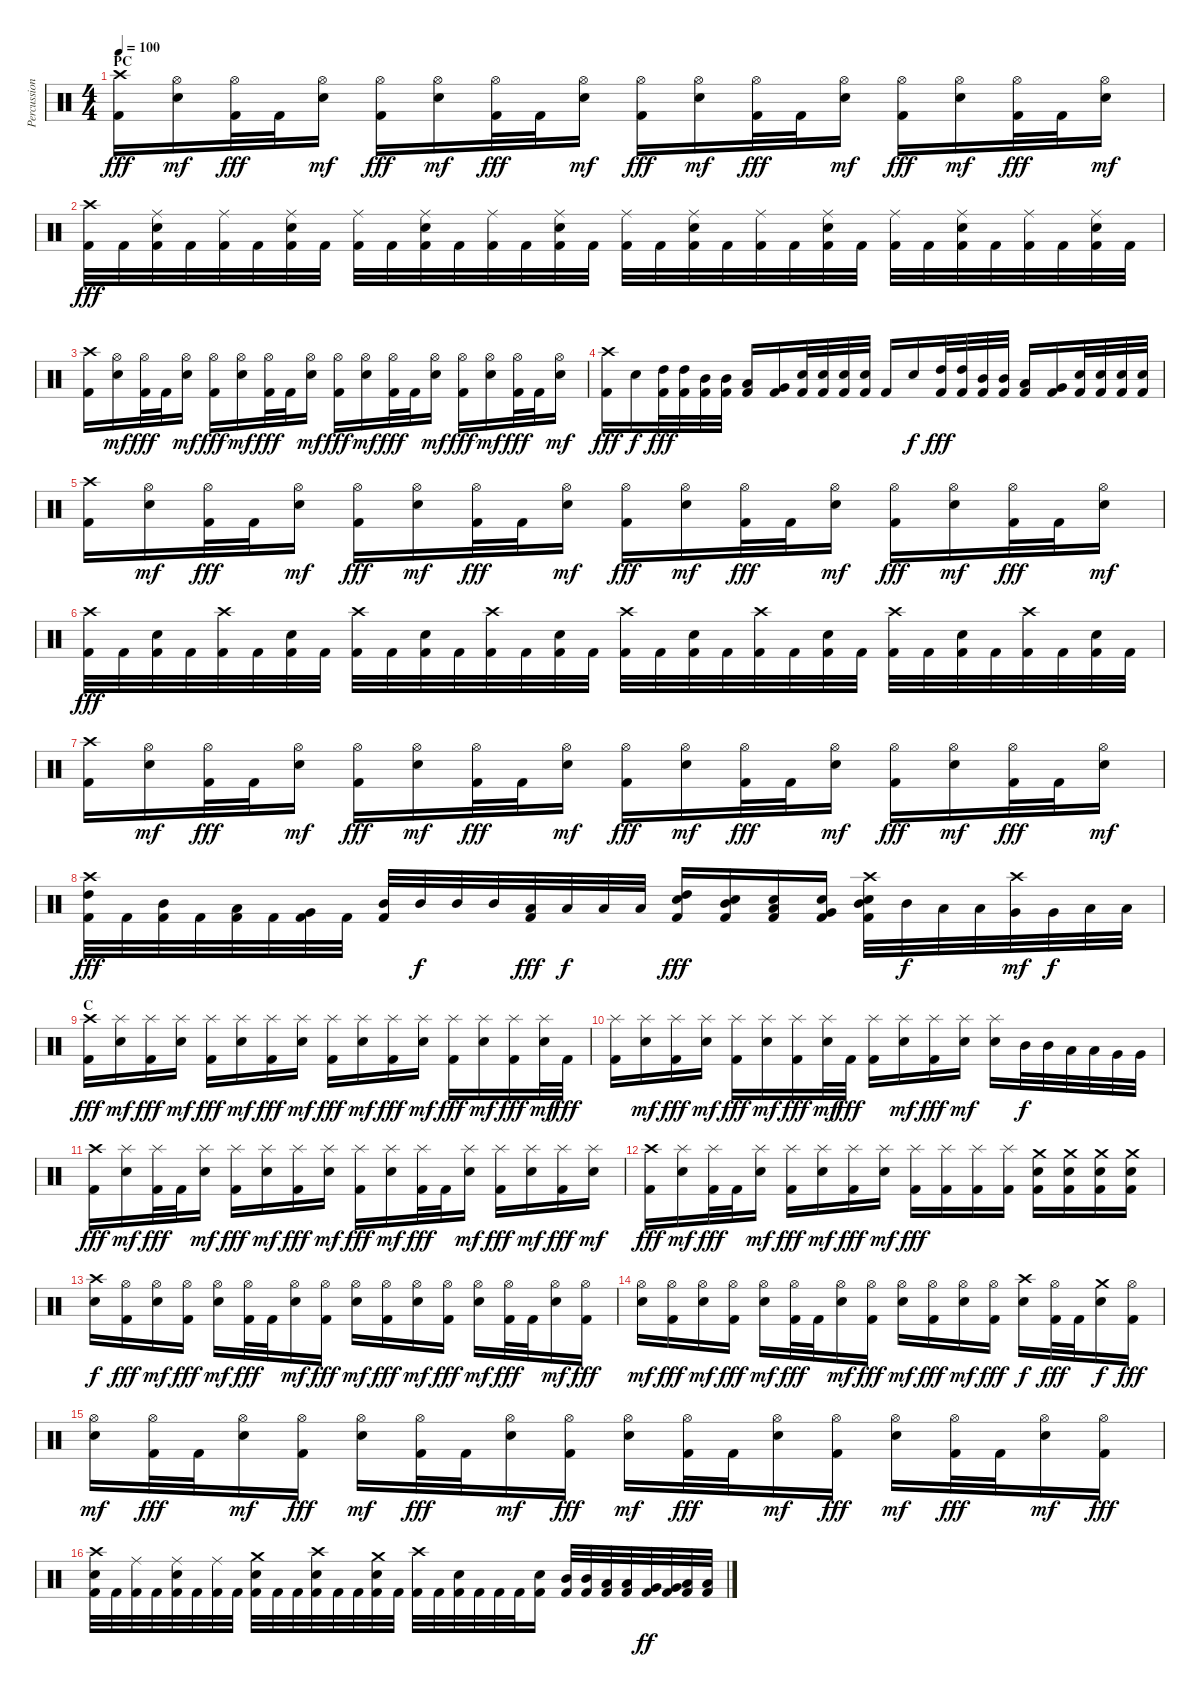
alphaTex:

\track ("Percussion" "Percussion") {instrument percussion}
\staff {score}
\articulation defaults
\ts (4 4)
\section ("" "PC")
\tempo 100
\clef neutral
\ks c
("Crash high (hit)" "Kick (hit) 2").16{dy fff} ("Hi-Hat (open)" "Snare (hit) 2").16{dy mf} ("Hi-Hat (open)" "Kick (hit) 2").32{dy fff} "Kick (hit) 2".32 ("Hi-Hat (open)" "Snare (hit) 2").16{dy mf} ("Hi-Hat (open)" "Kick (hit) 2").16{dy fff} ("Hi-Hat (open)" "Snare (hit) 2").16{dy mf} ("Hi-Hat (open)" "Kick (hit) 2").32{dy fff} "Kick (hit) 2".32 ("Hi-Hat (open)" "Snare (hit) 2").16{dy mf} ("Hi-Hat (open)" "Kick (hit) 2").16{dy fff} ("Hi-Hat (open)" "Snare (hit) 2").16{dy mf} ("Hi-Hat (open)" "Kick (hit) 2").32{dy fff} "Kick (hit) 2".32 ("Hi-Hat (open)" "Snare (hit) 2").16{dy mf} ("Hi-Hat (open)" "Kick (hit) 2").16{dy fff} ("Hi-Hat (open)" "Snare (hit) 2").16{dy mf} ("Hi-Hat (open)" "Kick (hit) 2").32{dy fff} "Kick (hit) 2".32 ("Hi-Hat (open)" "Snare (hit) 2").16{dy mf} |
("Crash high (hit)" "Kick (hit) 2").32{dy fff} "Kick (hit) 2".32 ("Ride (middle)" "Snare (hit) 2" "Kick (hit) 2").32 "Kick (hit) 2".32 ("Ride (middle)" "Kick (hit) 2").32 "Kick (hit) 2".32 ("Ride (middle)" "Snare (hit) 2" "Kick (hit) 2").32 "Kick (hit) 2".32 ("Ride (middle)" "Kick (hit) 2").32 "Kick (hit) 2".32 ("Ride (middle)" "Snare (hit) 2" "Kick (hit) 2").32 "Kick (hit) 2".32 ("Ride (middle)" "Kick (hit) 2").32 "Kick (hit) 2".32 ("Ride (middle)" "Snare (hit) 2" "Kick (hit) 2").32 "Kick (hit) 2".32 ("Ride (middle)" "Kick (hit) 2").32 "Kick (hit) 2".32 ("Ride (middle)" "Snare (hit) 2" "Kick (hit) 2").32 "Kick (hit) 2".32 ("Ride (middle)" "Kick (hit) 2").32 "Kick (hit) 2".32 ("Ride (middle)" "Snare (hit) 2" "Kick (hit) 2").32 "Kick (hit) 2".32 ("Ride (middle)" "Kick (hit) 2").32 "Kick (hit) 2".32 ("Ride (middle)" "Snare (hit) 2" "Kick (hit) 2").32 "Kick (hit) 2".32 ("Ride (middle)" "Kick (hit) 2").32 "Kick (hit) 2".32 ("Ride (middle)" "Snare (hit) 2" "Kick (hit) 2").32 "Kick (hit) 2".32 |
("Crash high (hit)" "Kick (hit) 2").16 ("Hi-Hat (open)" "Snare (hit) 2").16{dy mf} ("Hi-Hat (open)" "Kick (hit) 2").32{dy fff} "Kick (hit) 2".32 ("Hi-Hat (open)" "Snare (hit) 2").16{dy mf} ("Hi-Hat (open)" "Kick (hit) 2").16{dy fff} ("Hi-Hat (open)" "Snare (hit) 2").16{dy mf} ("Hi-Hat (open)" "Kick (hit) 2").32{dy fff} "Kick (hit) 2".32 ("Hi-Hat (open)" "Snare (hit) 2").16{dy mf} ("Hi-Hat (open)" "Kick (hit) 2").16{dy fff} ("Hi-Hat (open)" "Snare (hit) 2").16{dy mf} ("Hi-Hat (open)" "Kick (hit) 2").32{dy fff} "Kick (hit) 2".32 ("Hi-Hat (open)" "Snare (hit) 2").16{dy mf} ("Hi-Hat (open)" "Kick (hit) 2").16{dy fff} ("Hi-Hat (open)" "Snare (hit) 2").16{dy mf} ("Hi-Hat (open)" "Kick (hit) 2").32{dy fff} "Kick (hit) 2".32 ("Hi-Hat (open)" "Snare (hit) 2").16{dy mf} |
("Crash high (hit)" "Kick (hit) 2").16{dy fff} "Snare (hit) 2".16{dy f} ("High Tom (hit)" "Kick (hit) 2").32{dy fff} ("High Tom (hit)" "Kick (hit) 2").32 ("Mid Tom (hit)" "Kick (hit) 2").32 ("Mid Tom (hit)" "Kick (hit) 2").32 ("Low Tom (hit)" "Kick (hit) 2").16 ("Very Low Tom (hit)" "Kick (hit) 2").16 ("Snare (hit) 2" "Kick (hit) 2").32 ("Snare (hit) 2" "Kick (hit) 2").32 ("Snare (hit) 2" "Kick (hit) 2").32 ("Snare (hit) 2" "Kick (hit) 2").32 "Kick (hit) 2".16 "Snare (hit) 2".16{dy f} ("High Tom (hit)" "Kick (hit) 2").32{dy fff} ("High Tom (hit)" "Kick (hit) 2").32 ("Mid Tom (hit)" "Kick (hit) 2").32 ("Mid Tom (hit)" "Kick (hit) 2").32 ("Low Tom (hit)" "Kick (hit) 2").16 ("Very Low Tom (hit)" "Kick (hit) 2").16 ("Snare (hit) 2" "Kick (hit) 2").32 ("Snare (hit) 2" "Kick (hit) 2").32 ("Snare (hit) 2" "Kick (hit) 2").32 ("Snare (hit) 2" "Kick (hit) 2").32 |
("Crash high (hit)" "Kick (hit) 2").16 ("Hi-Hat (open)" "Snare (hit) 2").16{dy mf} ("Hi-Hat (open)" "Kick (hit) 2").32{dy fff} "Kick (hit) 2".32 ("Hi-Hat (open)" "Snare (hit) 2").16{dy mf} ("Hi-Hat (open)" "Kick (hit) 2").16{dy fff} ("Hi-Hat (open)" "Snare (hit) 2").16{dy mf} ("Hi-Hat (open)" "Kick (hit) 2").32{dy fff} "Kick (hit) 2".32 ("Hi-Hat (open)" "Snare (hit) 2").16{dy mf} ("Hi-Hat (open)" "Kick (hit) 2").16{dy fff} ("Hi-Hat (open)" "Snare (hit) 2").16{dy mf} ("Hi-Hat (open)" "Kick (hit) 2").32{dy fff} "Kick (hit) 2".32 ("Hi-Hat (open)" "Snare (hit) 2").16{dy mf} ("Hi-Hat (open)" "Kick (hit) 2").16{dy fff} ("Hi-Hat (open)" "Snare (hit) 2").16{dy mf} ("Hi-Hat (open)" "Kick (hit) 2").32{dy fff} "Kick (hit) 2".32 ("Hi-Hat (open)" "Snare (hit) 2").16{dy mf} |
("Crash high (hit)" "Kick (hit) 2").32{dy fff} "Kick (hit) 2".32 ("Snare (hit) 2" "Kick (hit) 2").32 "Kick (hit) 2".32 ("Crash high (hit)" "Kick (hit) 2").32 "Kick (hit) 2".32 ("Snare (hit) 2" "Kick (hit) 2").32 "Kick (hit) 2".32 ("Crash high (hit)" "Kick (hit) 2").32 "Kick (hit) 2".32 ("Snare (hit) 2" "Kick (hit) 2").32 "Kick (hit) 2".32 ("Crash high (hit)" "Kick (hit) 2").32 "Kick (hit) 2".32 ("Snare (hit) 2" "Kick (hit) 2").32 "Kick (hit) 2".32 ("Crash high (hit)" "Kick (hit) 2").32 "Kick (hit) 2".32 ("Snare (hit) 2" "Kick (hit) 2").32 "Kick (hit) 2".32 ("Crash high (hit)" "Kick (hit) 2").32 "Kick (hit) 2".32 ("Snare (hit) 2" "Kick (hit) 2").32 "Kick (hit) 2".32 ("Crash high (hit)" "Kick (hit) 2").32 "Kick (hit) 2".32 ("Snare (hit) 2" "Kick (hit) 2").32 "Kick (hit) 2".32 ("Crash high (hit)" "Kick (hit) 2").32 "Kick (hit) 2".32 ("Snare (hit) 2" "Kick (hit) 2").32 "Kick (hit) 2".32 |
("Crash high (hit)" "Kick (hit) 2").16 ("Hi-Hat (open)" "Snare (hit) 2").16{dy mf} ("Hi-Hat (open)" "Kick (hit) 2").32{dy fff} "Kick (hit) 2".32 ("Hi-Hat (open)" "Snare (hit) 2").16{dy mf} ("Hi-Hat (open)" "Kick (hit) 2").16{dy fff} ("Hi-Hat (open)" "Snare (hit) 2").16{dy mf} ("Hi-Hat (open)" "Kick (hit) 2").32{dy fff} "Kick (hit) 2".32 ("Hi-Hat (open)" "Snare (hit) 2").16{dy mf} ("Hi-Hat (open)" "Kick (hit) 2").16{dy fff} ("Hi-Hat (open)" "Snare (hit) 2").16{dy mf} ("Hi-Hat (open)" "Kick (hit) 2").32{dy fff} "Kick (hit) 2".32 ("Hi-Hat (open)" "Snare (hit) 2").16{dy mf} ("Hi-Hat (open)" "Kick (hit) 2").16{dy fff} ("Hi-Hat (open)" "Snare (hit) 2").16{dy mf} ("Hi-Hat (open)" "Kick (hit) 2").32{dy fff} "Kick (hit) 2".32 ("Hi-Hat (open)" "Snare (hit) 2").16{dy mf} |
("Crash high (hit)" "High Tom (hit)" "Kick (hit) 2").32{dy fff} "Kick (hit) 2".32 ("Mid Tom (hit)" "Kick (hit) 2").32 "Kick (hit) 2".32 ("Low Tom (hit)" "Kick (hit) 2").32 "Kick (hit) 2".32 ("Very Low Tom (hit)" "Kick (hit) 2").32 "Kick (hit) 2".32 ("Mid Tom (hit)" "Kick (hit) 2").32 "Mid Tom (hit)".32{dy f} "Mid Tom (hit)".32 "Mid Tom (hit)".32 ("Low Tom (hit)" "Kick (hit) 2").32{dy fff} "Low Tom (hit)".32{dy f} "Low Tom (hit)".32 "Low Tom (hit)".32 ("High Tom (hit)" "Snare (hit) 2" "Kick (hit) 2").16{dy fff} ("Mid Tom (hit)" "Snare (hit) 2" "Kick (hit) 2").16 ("Low Tom (hit)" "Snare (hit) 2" "Kick (hit) 2").16 ("Very Low Tom (hit)" "Snare (hit) 2" "Kick (hit) 2").16 ("Crash high (hit)" "Mid Tom (hit)" "Snare (hit) 2" "Kick (hit) 2").32 "Mid Tom (hit)".32{dy f} "Low Tom (hit)".32 "Low Tom (hit)".32 ("Crash high (hit)" "Very Low Tom (hit)").32{dy mf} "Very Low Tom (hit)".32{dy f} "Low Floor Tom (hit)".32 "Low Floor Tom (hit)".32 |
\section ("" "C")
("Crash high (hit)" "Kick (hit) 2").16{dy fff} ("Splash (hit)" "Snare (hit) 2").16{dy mf} ("Splash (hit)" "Kick (hit) 2").16{dy fff} ("Splash (hit)" "Snare (hit) 2").16{dy mf} ("Splash (hit)" "Kick (hit) 2").16{dy fff} ("Splash (hit)" "Snare (hit) 2").16{dy mf} ("Splash (hit)" "Kick (hit) 2").16{dy fff} ("Splash (hit)" "Snare (hit) 2").16{dy mf} ("Splash (hit)" "Kick (hit) 2").16{dy fff} ("Splash (hit)" "Snare (hit) 2").16{dy mf} ("Splash (hit)" "Kick (hit) 2").16{dy fff} ("Splash (hit)" "Snare (hit) 2").16{dy mf} ("Splash (hit)" "Kick (hit) 2").16{dy fff} ("Splash (hit)" "Snare (hit) 2").16{dy mf} ("Splash (hit)" "Kick (hit) 2").16{dy fff} ("Splash (hit)" "Snare (hit) 2").32{dy mf} "Kick (hit) 2".32{dy fff} |
("Splash (hit)" "Kick (hit) 2").16 ("Splash (hit)" "Snare (hit) 2").16{dy mf} ("Splash (hit)" "Kick (hit) 2").16{dy fff} ("Splash (hit)" "Snare (hit) 2").16{dy mf} ("Splash (hit)" "Kick (hit) 2").16{dy fff} ("Splash (hit)" "Snare (hit) 2").16{dy mf} ("Splash (hit)" "Kick (hit) 2").16{dy fff} ("Splash (hit)" "Snare (hit) 2").32{dy mf} "Kick (hit) 2".32{dy fff} ("Splash (hit)" "Kick (hit) 2").16 ("Splash (hit)" "Snare (hit) 2").16{dy mf} ("Splash (hit)" "Kick (hit) 2").16{dy fff} ("Splash (hit)" "Snare (hit) 2").16{dy mf} ("Splash (hit)" "Snare (hit) 2").16 "Mid Tom (hit)".32{dy f} "Mid Tom (hit)".32 "Low Tom (hit)".32 "Low Tom (hit)".32 "Very Low Tom (hit)".32 "Very Low Tom (hit)".32 |
("Crash high (hit)" "Kick (hit) 2").16{dy fff} ("Splash (hit)" "Snare (hit) 2").16{dy mf} ("Splash (hit)" "Kick (hit) 2").32{dy fff} "Kick (hit) 2".32 ("Splash (hit)" "Snare (hit) 2").16{dy mf} ("Splash (hit)" "Kick (hit) 2").16{dy fff} ("Splash (hit)" "Snare (hit) 2").16{dy mf} ("Splash (hit)" "Kick (hit) 2").16{dy fff} ("Splash (hit)" "Snare (hit) 2").16{dy mf} ("Splash (hit)" "Kick (hit) 2").16{dy fff} ("Splash (hit)" "Snare (hit) 2").16{dy mf} ("Splash (hit)" "Kick (hit) 2").32{dy fff} "Kick (hit) 2".32 ("Splash (hit)" "Snare (hit) 2").16{dy mf} ("Splash (hit)" "Kick (hit) 2").16{dy fff} ("Splash (hit)" "Snare (hit) 2").16{dy mf} ("Splash (hit)" "Kick (hit) 2").16{dy fff} ("Splash (hit)" "Snare (hit) 2").16{dy mf} |
("Crash high (hit)" "Kick (hit) 2").16{dy fff} ("Splash (hit)" "Snare (hit) 2").16{dy mf} ("Splash (hit)" "Kick (hit) 2").32{dy fff} "Kick (hit) 2".32 ("Splash (hit)" "Snare (hit) 2").16{dy mf} ("Splash (hit)" "Kick (hit) 2").16{dy fff} ("Splash (hit)" "Snare (hit) 2").16{dy mf} ("Splash (hit)" "Kick (hit) 2").16{dy fff} ("Splash (hit)" "Snare (hit) 2").16{dy mf} ("Splash (hit)" "Kick (hit) 2").16{dy fff} ("Splash (hit)" "Kick (hit) 2").16 ("Splash (hit)" "Kick (hit) 2").16 ("Splash (hit)" "Kick (hit) 2").16 ("Crash medium (hit)" "Snare (hit) 2" "Kick (hit) 2").16 ("Crash medium (hit)" "Snare (hit) 2" "Kick (hit) 2").16 ("Crash medium (hit)" "Snare (hit) 2" "Kick (hit) 2").16 ("Crash medium (hit)" "Snare (hit) 2" "Kick (hit) 2").16 |
("Crash high (hit)" "Snare (hit) 2").16{dy f} ("Hi-Hat (open)" "Kick (hit) 2").16{dy fff} ("Hi-Hat (open)" "Snare (hit) 2").16{dy mf} ("Hi-Hat (open)" "Kick (hit) 2").16{dy fff} ("Hi-Hat (open)" "Snare (hit) 2").16{dy mf} ("Hi-Hat (open)" "Kick (hit) 2").32{dy fff} "Kick (hit) 2".32 ("Hi-Hat (open)" "Snare (hit) 2").16{dy mf} ("Hi-Hat (open)" "Kick (hit) 2").16{dy fff} ("Hi-Hat (open)" "Snare (hit) 2").16{dy mf} ("Hi-Hat (open)" "Kick (hit) 2").16{dy fff} ("Hi-Hat (open)" "Snare (hit) 2").16{dy mf} ("Hi-Hat (open)" "Kick (hit) 2").16{dy fff} ("Hi-Hat (open)" "Snare (hit) 2").16{dy mf} ("Hi-Hat (open)" "Kick (hit) 2").32{dy fff} "Kick (hit) 2".32 ("Hi-Hat (open)" "Snare (hit) 2").16{dy mf} ("Hi-Hat (open)" "Kick (hit) 2").16{dy fff} |
("Hi-Hat (open)" "Snare (hit) 2").16{dy mf} ("Hi-Hat (open)" "Kick (hit) 2").16{dy fff} ("Hi-Hat (open)" "Snare (hit) 2").16{dy mf} ("Hi-Hat (open)" "Kick (hit) 2").16{dy fff} ("Hi-Hat (open)" "Snare (hit) 2").16{dy mf} ("Hi-Hat (open)" "Kick (hit) 2").32{dy fff} "Kick (hit) 2".32 ("Hi-Hat (open)" "Snare (hit) 2").16{dy mf} ("Hi-Hat (open)" "Kick (hit) 2").16{dy fff} ("Hi-Hat (open)" "Snare (hit) 2").16{dy mf} ("Hi-Hat (open)" "Kick (hit) 2").16{dy fff} ("Hi-Hat (open)" "Snare (hit) 2").16{dy mf} ("Hi-Hat (open)" "Kick (hit) 2").16{dy fff} ("Crash high (hit)" "Snare (hit) 2").16{dy f} ("Hi-Hat (open)" "Kick (hit) 2").32{dy fff} "Kick (hit) 2".32 ("Crash medium (hit)" "Snare (hit) 2").16{dy f} ("Hi-Hat (open)" "Kick (hit) 2").16{dy fff} |
("Hi-Hat (open)" "Snare (hit) 2").16{dy mf} ("Hi-Hat (open)" "Kick (hit) 2").32{dy fff} "Kick (hit) 2".32 ("Hi-Hat (open)" "Snare (hit) 2").16{dy mf} ("Hi-Hat (open)" "Kick (hit) 2").16{dy fff} ("Hi-Hat (open)" "Snare (hit) 2").16{dy mf} ("Hi-Hat (open)" "Kick (hit) 2").32{dy fff} "Kick (hit) 2".32 ("Hi-Hat (open)" "Snare (hit) 2").16{dy mf} ("Hi-Hat (open)" "Kick (hit) 2").16{dy fff} ("Hi-Hat (open)" "Snare (hit) 2").16{dy mf} ("Hi-Hat (open)" "Kick (hit) 2").32{dy fff} "Kick (hit) 2".32 ("Hi-Hat (open)" "Snare (hit) 2").16{dy mf} ("Hi-Hat (open)" "Kick (hit) 2").16{dy fff} ("Hi-Hat (open)" "Snare (hit) 2").16{dy mf} ("Hi-Hat (open)" "Kick (hit) 2").32{dy fff} "Kick (hit) 2".32 ("Hi-Hat (open)" "Snare (hit) 2").16{dy mf} ("Hi-Hat (open)" "Kick (hit) 2").16{dy fff} |
("Crash high (hit)" "Snare (hit) 2" "Kick (hit) 2").32 "Kick (hit) 2".32 ("Ride (middle)" "Kick (hit) 2").32 "Kick (hit) 2".32 ("Ride (middle)" "Snare (hit) 2" "Kick (hit) 2").32 "Kick (hit) 2".32 ("Ride (middle)" "Kick (hit) 2").32 "Kick (hit) 2".32 ("Crash medium (hit)" "Snare (hit) 2" "Kick (hit) 2").32 "Kick (hit) 2".32 "Kick (hit) 2".32 ("Crash high (hit)" "Snare (hit) 2" "Kick (hit) 2").32 "Kick (hit) 2".32 "Kick (hit) 2".32 ("Crash medium (hit)" "Snare (hit) 2" "Kick (hit) 2").32 "Kick (hit) 2".32 ("Crash high (hit)" "Kick (hit) 2").32 "Kick (hit) 2".32 ("Snare (hit) 2" "Kick (hit) 2").32 "Kick (hit) 2".32 "Kick (hit) 2".32 "Kick (hit) 2".32 ("Snare (hit) 2" "Kick (hit) 2").16 ("Mid Tom (hit)" "Kick (hit) 2").32 ("Mid Tom (hit)" "Kick (hit) 2").32 ("Low Tom (hit)" "Kick (hit) 2").32 ("Low Tom (hit)" "Kick (hit) 2").32 ("Very Low Tom (hit)" "Kick (hit) 2").32{dy ff} ("Very Low Tom (hit)" "Kick (hit) 2").32 ("Low Floor Tom (hit)" "Kick (hit) 2").32 ("Low Floor Tom (hit)" "Kick (hit) 2").32
